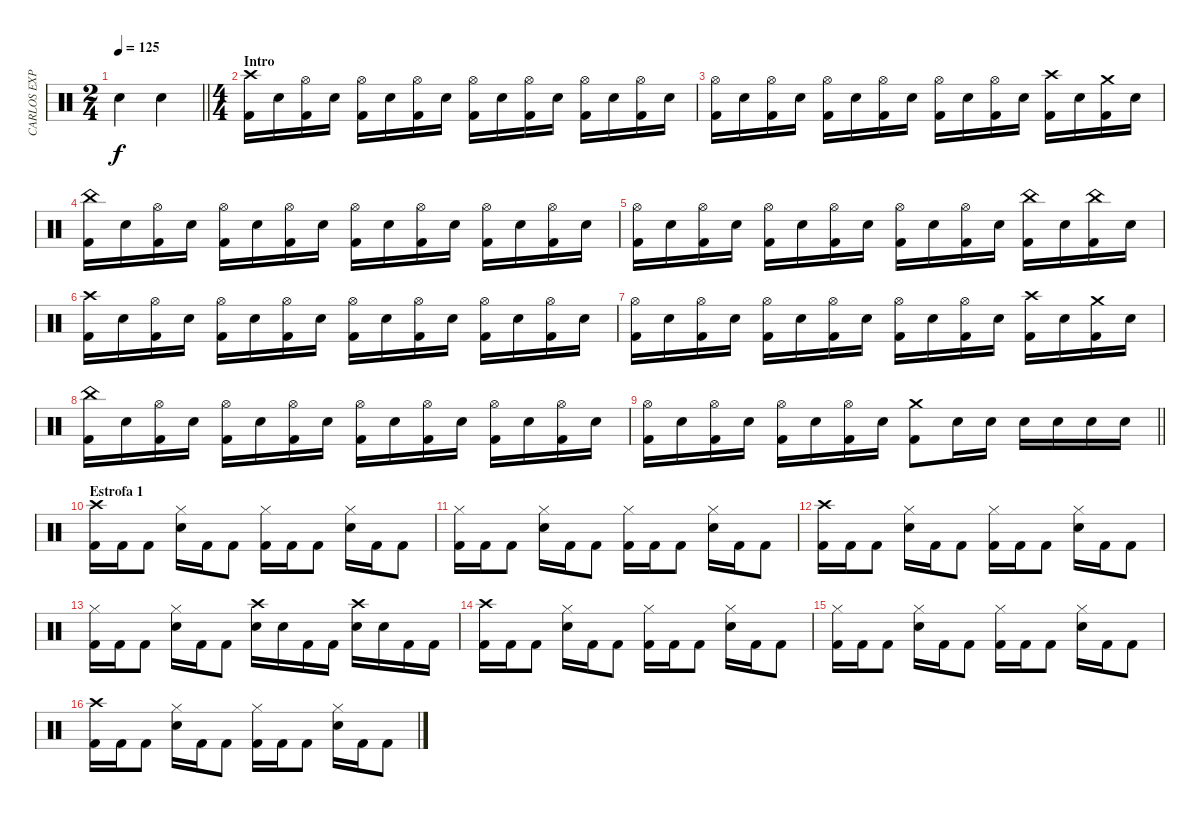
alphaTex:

\track ("CARLOS EXPÓSITO" "CARLOS EXP") {instrument percussion}
\staff {score}
\articulation defaults
\ts (2 4)
\tempo 125
\clef neutral
\barLineRight lightlight
\ks c "Snare (hit) 2".4{dy f} "Snare (hit) 2".4
|
\ts (4 4)
\section ("" "Intro")
("Crash high (hit)" "Kick (hit) 2").16 "Snare (hit) 2".16 ("Hi-Hat (open)" "Kick (hit) 2").16 "Snare (hit) 2".16 ("Hi-Hat (open)" "Kick (hit) 2").16 "Snare (hit) 2".16 ("Hi-Hat (open)" "Kick (hit) 2").16 "Snare (hit) 2".16 ("Hi-Hat (open)" "Kick (hit) 2").16 "Snare (hit) 2".16 ("Hi-Hat (open)" "Kick (hit) 2").16 "Snare (hit) 2".16 ("Hi-Hat (open)" "Kick (hit) 2").16 "Snare (hit) 2".16 ("Hi-Hat (open)" "Kick (hit) 2").16 "Snare (hit) 2".16 |
("Hi-Hat (open)" "Kick (hit) 2").16 "Snare (hit) 2".16 ("Hi-Hat (open)" "Kick (hit) 2").16 "Snare (hit) 2".16 ("Hi-Hat (open)" "Kick (hit) 2").16 "Snare (hit) 2".16 ("Hi-Hat (open)" "Kick (hit) 2").16 "Snare (hit) 2".16 ("Hi-Hat (open)" "Kick (hit) 2").16 "Snare (hit) 2".16 ("Hi-Hat (open)" "Kick (hit) 2").16 "Snare (hit) 2".16 ("Crash high (hit)" "Kick (hit) 2").16 "Snare (hit) 2".16 ("Crash medium (hit)" "Kick (hit) 2").16 "Snare (hit) 2".16 |
("China (hit)" "Kick (hit) 2").16 "Snare (hit) 2".16 ("Hi-Hat (open)" "Kick (hit) 2").16 "Snare (hit) 2".16 ("Hi-Hat (open)" "Kick (hit) 2").16 "Snare (hit) 2".16 ("Hi-Hat (open)" "Kick (hit) 2").16 "Snare (hit) 2".16 ("Hi-Hat (open)" "Kick (hit) 2").16 "Snare (hit) 2".16 ("Hi-Hat (open)" "Kick (hit) 2").16 "Snare (hit) 2".16 ("Hi-Hat (open)" "Kick (hit) 2").16 "Snare (hit) 2".16 ("Hi-Hat (open)" "Kick (hit) 2").16 "Snare (hit) 2".16 |
("Hi-Hat (open)" "Kick (hit) 2").16 "Snare (hit) 2".16 ("Hi-Hat (open)" "Kick (hit) 2").16 "Snare (hit) 2".16 ("Hi-Hat (open)" "Kick (hit) 2").16 "Snare (hit) 2".16 ("Hi-Hat (open)" "Kick (hit) 2").16 "Snare (hit) 2".16 ("Hi-Hat (open)" "Kick (hit) 2").16 "Snare (hit) 2".16 ("Hi-Hat (open)" "Kick (hit) 2").16 "Snare (hit) 2".16 ("China (hit)" "Kick (hit) 2").16 "Snare (hit) 2".16 ("China (hit)" "Kick (hit) 2").16 "Snare (hit) 2".16 |
("Crash high (hit)" "Kick (hit) 2").16 "Snare (hit) 2".16 ("Hi-Hat (open)" "Kick (hit) 2").16 "Snare (hit) 2".16 ("Hi-Hat (open)" "Kick (hit) 2").16 "Snare (hit) 2".16 ("Hi-Hat (open)" "Kick (hit) 2").16 "Snare (hit) 2".16 ("Hi-Hat (open)" "Kick (hit) 2").16 "Snare (hit) 2".16 ("Hi-Hat (open)" "Kick (hit) 2").16 "Snare (hit) 2".16 ("Hi-Hat (open)" "Kick (hit) 2").16 "Snare (hit) 2".16 ("Hi-Hat (open)" "Kick (hit) 2").16 "Snare (hit) 2".16 |
("Hi-Hat (open)" "Kick (hit) 2").16 "Snare (hit) 2".16 ("Hi-Hat (open)" "Kick (hit) 2").16 "Snare (hit) 2".16 ("Hi-Hat (open)" "Kick (hit) 2").16 "Snare (hit) 2".16 ("Hi-Hat (open)" "Kick (hit) 2").16 "Snare (hit) 2".16 ("Hi-Hat (open)" "Kick (hit) 2").16 "Snare (hit) 2".16 ("Hi-Hat (open)" "Kick (hit) 2").16 "Snare (hit) 2".16 ("Crash high (hit)" "Kick (hit) 2").16 "Snare (hit) 2".16 ("Crash medium (hit)" "Kick (hit) 2").16 "Snare (hit) 2".16 |
("China (hit)" "Kick (hit) 2").16 "Snare (hit) 2".16 ("Hi-Hat (open)" "Kick (hit) 2").16 "Snare (hit) 2".16 ("Hi-Hat (open)" "Kick (hit) 2").16 "Snare (hit) 2".16 ("Hi-Hat (open)" "Kick (hit) 2").16 "Snare (hit) 2".16 ("Hi-Hat (open)" "Kick (hit) 2").16 "Snare (hit) 2".16 ("Hi-Hat (open)" "Kick (hit) 2").16 "Snare (hit) 2".16 ("Hi-Hat (open)" "Kick (hit) 2").16 "Snare (hit) 2".16 ("Hi-Hat (open)" "Kick (hit) 2").16 "Snare (hit) 2".16 |
\barLineRight lightlight
("Hi-Hat (open)" "Kick (hit) 2").16 "Snare (hit) 2".16 ("Hi-Hat (open)" "Kick (hit) 2").16 "Snare (hit) 2".16 ("Hi-Hat (open)" "Kick (hit) 2").16 "Snare (hit) 2".16 ("Hi-Hat (open)" "Kick (hit) 2").16 "Snare (hit) 2".16 ("Crash medium (hit)" "Kick (hit) 2").8 "Snare (hit) 2".16 "Snare (hit) 2".16 "Snare (hit) 2".16 "Snare (hit) 2".16 "Snare (hit) 2".16 "Snare (hit) 2".16 |
\section ("" "Estrofa 1")
("Kick (hit) 2" "Crash high (hit)").16 "Kick (hit) 2".16 "Kick (hit) 2".8 ("Snare (hit) 2" "Hi-Hat (closed)").16 "Kick (hit) 2".16 "Kick (hit) 2".8 ("Kick (hit) 2" "Hi-Hat (closed)").16 "Kick (hit) 2".16 "Kick (hit) 2".8 ("Snare (hit) 2" "Hi-Hat (closed)").16 "Kick (hit) 2".16 "Kick (hit) 2".8 |
("Kick (hit) 2" "Hi-Hat (closed)").16 "Kick (hit) 2".16 "Kick (hit) 2".8 ("Snare (hit) 2" "Hi-Hat (closed)").16 "Kick (hit) 2".16 "Kick (hit) 2".8 ("Kick (hit) 2" "Hi-Hat (closed)").16 "Kick (hit) 2".16 "Kick (hit) 2".8 ("Snare (hit) 2" "Hi-Hat (closed)").16 "Kick (hit) 2".16 "Kick (hit) 2".8 |
("Kick (hit) 2" "Crash high (hit)").16 "Kick (hit) 2".16 "Kick (hit) 2".8 ("Snare (hit) 2" "Hi-Hat (closed)").16 "Kick (hit) 2".16 "Kick (hit) 2".8 ("Kick (hit) 2" "Hi-Hat (closed)").16 "Kick (hit) 2".16 "Kick (hit) 2".8 ("Snare (hit) 2" "Hi-Hat (closed)").16 "Kick (hit) 2".16 "Kick (hit) 2".8 |
("Kick (hit) 2" "Hi-Hat (closed)").16 "Kick (hit) 2".16 "Kick (hit) 2".8 ("Snare (hit) 2" "Hi-Hat (closed)").16 "Kick (hit) 2".16 "Kick (hit) 2".8 ("Snare (hit) 2" "Crash high (hit)").16 "Snare (hit) 2".16 "Kick (hit) 2".16 "Kick (hit) 2".16 ("Snare (hit) 2" "Crash high (hit)").16 "Snare (hit) 2".16 "Kick (hit) 2".16 "Kick (hit) 2".16 |
("Kick (hit) 2" "Crash high (hit)").16 "Kick (hit) 2".16 "Kick (hit) 2".8 ("Snare (hit) 2" "Hi-Hat (closed)").16 "Kick (hit) 2".16 "Kick (hit) 2".8 ("Kick (hit) 2" "Hi-Hat (closed)").16 "Kick (hit) 2".16 "Kick (hit) 2".8 ("Snare (hit) 2" "Hi-Hat (closed)").16 "Kick (hit) 2".16 "Kick (hit) 2".8 |
("Kick (hit) 2" "Hi-Hat (closed)").16 "Kick (hit) 2".16 "Kick (hit) 2".8 ("Snare (hit) 2" "Hi-Hat (closed)").16 "Kick (hit) 2".16 "Kick (hit) 2".8 ("Kick (hit) 2" "Hi-Hat (closed)").16 "Kick (hit) 2".16 "Kick (hit) 2".8 ("Snare (hit) 2" "Hi-Hat (closed)").16 "Kick (hit) 2".16 "Kick (hit) 2".8 |
("Kick (hit) 2" "Crash high (hit)").16 "Kick (hit) 2".16 "Kick (hit) 2".8 ("Snare (hit) 2" "Hi-Hat (closed)").16 "Kick (hit) 2".16 "Kick (hit) 2".8 ("Kick (hit) 2" "Hi-Hat (closed)").16 "Kick (hit) 2".16 "Kick (hit) 2".8 ("Snare (hit) 2" "Hi-Hat (closed)").16 "Kick (hit) 2".16 "Kick (hit) 2".8
